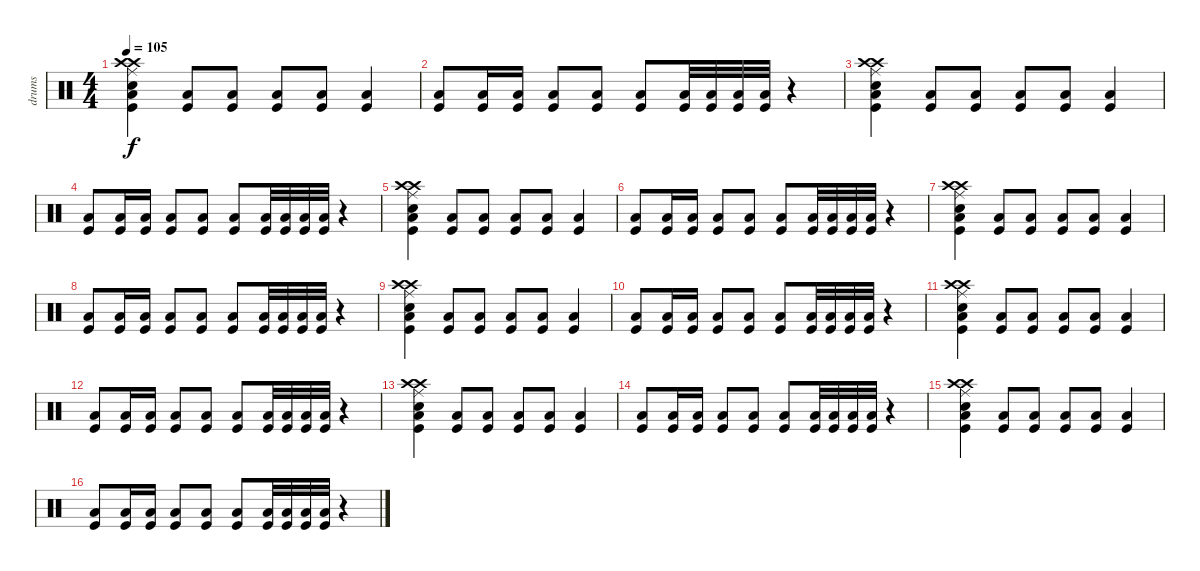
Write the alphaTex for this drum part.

\track ("drums" "drums") {instrument percussion}
\staff {score}
\articulation defaults
\ts (4 4)
\tempo 105
\clef neutral
\ks c
("Ride (middle)" "Crash high (hit)" "Crash high (hit)" "Snare (hit) 2" "Low Floor Tom (hit)" "Kick (hit)").4{dy f} ("Low Floor Tom (hit)" "Kick (hit)").8 ("Low Floor Tom (hit)" "Kick (hit)").8 ("Low Floor Tom (hit)" "Kick (hit)").8 ("Low Floor Tom (hit)" "Kick (hit)").8 ("Low Floor Tom (hit)" "Kick (hit)").4 |
("Low Floor Tom (hit)" "Kick (hit)").8 ("Low Floor Tom (hit)" "Kick (hit)").16 ("Low Floor Tom (hit)" "Kick (hit)").16 ("Low Floor Tom (hit)" "Kick (hit)").8 ("Low Floor Tom (hit)" "Kick (hit)").8 ("Low Floor Tom (hit)" "Kick (hit)").8 ("Low Floor Tom (hit)" "Kick (hit)").32 ("Low Floor Tom (hit)" "Kick (hit)").32 ("Low Floor Tom (hit)" "Kick (hit)").32 ("Low Floor Tom (hit)" "Kick (hit)").32 r.4 |
("Ride (middle)" "Crash high (hit)" "Crash high (hit)" "Snare (hit) 2" "Low Floor Tom (hit)" "Kick (hit)").4 ("Low Floor Tom (hit)" "Kick (hit)").8 ("Low Floor Tom (hit)" "Kick (hit)").8 ("Low Floor Tom (hit)" "Kick (hit)").8 ("Low Floor Tom (hit)" "Kick (hit)").8 ("Low Floor Tom (hit)" "Kick (hit)").4 |
("Low Floor Tom (hit)" "Kick (hit)").8 ("Low Floor Tom (hit)" "Kick (hit)").16 ("Low Floor Tom (hit)" "Kick (hit)").16 ("Low Floor Tom (hit)" "Kick (hit)").8 ("Low Floor Tom (hit)" "Kick (hit)").8 ("Low Floor Tom (hit)" "Kick (hit)").8 ("Low Floor Tom (hit)" "Kick (hit)").32 ("Low Floor Tom (hit)" "Kick (hit)").32 ("Low Floor Tom (hit)" "Kick (hit)").32 ("Low Floor Tom (hit)" "Kick (hit)").32 r.4 |
("Ride (middle)" "Crash high (hit)" "Crash high (hit)" "Snare (hit) 2" "Low Floor Tom (hit)" "Kick (hit)").4 ("Low Floor Tom (hit)" "Kick (hit)").8 ("Low Floor Tom (hit)" "Kick (hit)").8 ("Low Floor Tom (hit)" "Kick (hit)").8 ("Low Floor Tom (hit)" "Kick (hit)").8 ("Low Floor Tom (hit)" "Kick (hit)").4 |
("Low Floor Tom (hit)" "Kick (hit)").8 ("Low Floor Tom (hit)" "Kick (hit)").16 ("Low Floor Tom (hit)" "Kick (hit)").16 ("Low Floor Tom (hit)" "Kick (hit)").8 ("Low Floor Tom (hit)" "Kick (hit)").8 ("Low Floor Tom (hit)" "Kick (hit)").8 ("Low Floor Tom (hit)" "Kick (hit)").32 ("Low Floor Tom (hit)" "Kick (hit)").32 ("Low Floor Tom (hit)" "Kick (hit)").32 ("Low Floor Tom (hit)" "Kick (hit)").32 r.4 |
("Ride (middle)" "Crash high (hit)" "Crash high (hit)" "Snare (hit) 2" "Low Floor Tom (hit)" "Kick (hit)").4 ("Low Floor Tom (hit)" "Kick (hit)").8 ("Low Floor Tom (hit)" "Kick (hit)").8 ("Low Floor Tom (hit)" "Kick (hit)").8 ("Low Floor Tom (hit)" "Kick (hit)").8 ("Low Floor Tom (hit)" "Kick (hit)").4 |
("Low Floor Tom (hit)" "Kick (hit)").8 ("Low Floor Tom (hit)" "Kick (hit)").16 ("Low Floor Tom (hit)" "Kick (hit)").16 ("Low Floor Tom (hit)" "Kick (hit)").8 ("Low Floor Tom (hit)" "Kick (hit)").8 ("Low Floor Tom (hit)" "Kick (hit)").8 ("Low Floor Tom (hit)" "Kick (hit)").32 ("Low Floor Tom (hit)" "Kick (hit)").32 ("Low Floor Tom (hit)" "Kick (hit)").32 ("Low Floor Tom (hit)" "Kick (hit)").32 r.4 |
("Ride (middle)" "Crash high (hit)" "Crash high (hit)" "Snare (hit) 2" "Low Floor Tom (hit)" "Kick (hit)").4 ("Low Floor Tom (hit)" "Kick (hit)").8 ("Low Floor Tom (hit)" "Kick (hit)").8 ("Low Floor Tom (hit)" "Kick (hit)").8 ("Low Floor Tom (hit)" "Kick (hit)").8 ("Low Floor Tom (hit)" "Kick (hit)").4 |
("Low Floor Tom (hit)" "Kick (hit)").8 ("Low Floor Tom (hit)" "Kick (hit)").16 ("Low Floor Tom (hit)" "Kick (hit)").16 ("Low Floor Tom (hit)" "Kick (hit)").8 ("Low Floor Tom (hit)" "Kick (hit)").8 ("Low Floor Tom (hit)" "Kick (hit)").8 ("Low Floor Tom (hit)" "Kick (hit)").32 ("Low Floor Tom (hit)" "Kick (hit)").32 ("Low Floor Tom (hit)" "Kick (hit)").32 ("Low Floor Tom (hit)" "Kick (hit)").32 r.4 |
("Ride (middle)" "Crash high (hit)" "Crash high (hit)" "Snare (hit) 2" "Low Floor Tom (hit)" "Kick (hit)").4 ("Low Floor Tom (hit)" "Kick (hit)").8 ("Low Floor Tom (hit)" "Kick (hit)").8 ("Low Floor Tom (hit)" "Kick (hit)").8 ("Low Floor Tom (hit)" "Kick (hit)").8 ("Low Floor Tom (hit)" "Kick (hit)").4 |
("Low Floor Tom (hit)" "Kick (hit)").8 ("Low Floor Tom (hit)" "Kick (hit)").16 ("Low Floor Tom (hit)" "Kick (hit)").16 ("Low Floor Tom (hit)" "Kick (hit)").8 ("Low Floor Tom (hit)" "Kick (hit)").8 ("Low Floor Tom (hit)" "Kick (hit)").8 ("Low Floor Tom (hit)" "Kick (hit)").32 ("Low Floor Tom (hit)" "Kick (hit)").32 ("Low Floor Tom (hit)" "Kick (hit)").32 ("Low Floor Tom (hit)" "Kick (hit)").32 r.4 |
("Ride (middle)" "Crash high (hit)" "Crash high (hit)" "Snare (hit) 2" "Low Floor Tom (hit)" "Kick (hit)").4 ("Low Floor Tom (hit)" "Kick (hit)").8 ("Low Floor Tom (hit)" "Kick (hit)").8 ("Low Floor Tom (hit)" "Kick (hit)").8 ("Low Floor Tom (hit)" "Kick (hit)").8 ("Low Floor Tom (hit)" "Kick (hit)").4 |
("Low Floor Tom (hit)" "Kick (hit)").8 ("Low Floor Tom (hit)" "Kick (hit)").16 ("Low Floor Tom (hit)" "Kick (hit)").16 ("Low Floor Tom (hit)" "Kick (hit)").8 ("Low Floor Tom (hit)" "Kick (hit)").8 ("Low Floor Tom (hit)" "Kick (hit)").8 ("Low Floor Tom (hit)" "Kick (hit)").32 ("Low Floor Tom (hit)" "Kick (hit)").32 ("Low Floor Tom (hit)" "Kick (hit)").32 ("Low Floor Tom (hit)" "Kick (hit)").32 r.4 |
("Ride (middle)" "Crash high (hit)" "Crash high (hit)" "Snare (hit) 2" "Low Floor Tom (hit)" "Kick (hit)").4 ("Low Floor Tom (hit)" "Kick (hit)").8 ("Low Floor Tom (hit)" "Kick (hit)").8 ("Low Floor Tom (hit)" "Kick (hit)").8 ("Low Floor Tom (hit)" "Kick (hit)").8 ("Low Floor Tom (hit)" "Kick (hit)").4 |
("Low Floor Tom (hit)" "Kick (hit)").8 ("Low Floor Tom (hit)" "Kick (hit)").16 ("Low Floor Tom (hit)" "Kick (hit)").16 ("Low Floor Tom (hit)" "Kick (hit)").8 ("Low Floor Tom (hit)" "Kick (hit)").8 ("Low Floor Tom (hit)" "Kick (hit)").8 ("Low Floor Tom (hit)" "Kick (hit)").32 ("Low Floor Tom (hit)" "Kick (hit)").32 ("Low Floor Tom (hit)" "Kick (hit)").32 ("Low Floor Tom (hit)" "Kick (hit)").32 r.4
